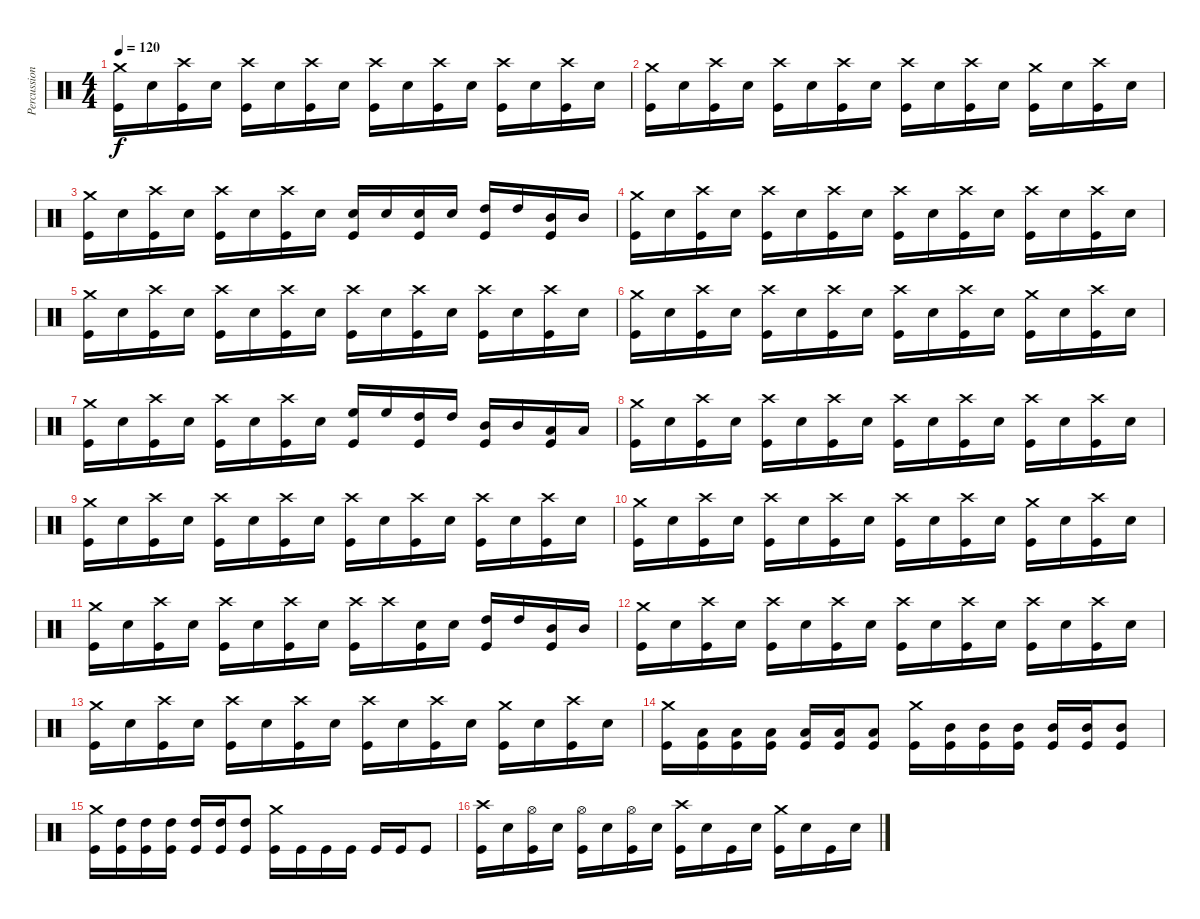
\track ("Percussioni" "Percussion") {instrument percussion}
\staff {score}
\articulation defaults
\ts (4 4)
\tempo 120
\clef neutral
\ks c
("Crash medium (hit)" "Kick (hit)").16{dy f} "Electric Snare (hit)".16 ("Crash high (hit)" "Kick (hit)").16 "Electric Snare (hit)".16 ("Crash high (hit)" "Kick (hit)").16 "Electric Snare (hit)".16 ("Crash high (hit)" "Kick (hit)").16 "Electric Snare (hit)".16 ("Crash high (hit)" "Kick (hit)").16 "Electric Snare (hit)".16 ("Crash high (hit)" "Kick (hit)").16 "Electric Snare (hit)".16 ("Crash high (hit)" "Kick (hit)").16 "Electric Snare (hit)".16 ("Crash high (hit)" "Kick (hit)").16 "Electric Snare (hit)".16 |
("Crash medium (hit)" "Kick (hit)").16 "Electric Snare (hit)".16 ("Crash high (hit)" "Kick (hit)").16 "Electric Snare (hit)".16 ("Crash high (hit)" "Kick (hit)").16 "Electric Snare (hit)".16 ("Crash high (hit)" "Kick (hit)").16 "Electric Snare (hit)".16 ("Crash high (hit)" "Kick (hit)").16 "Electric Snare (hit)".16 ("Crash high (hit)" "Kick (hit)").16 "Electric Snare (hit)".16 ("Crash medium (hit)" "Kick (hit)").16 "Electric Snare (hit)".16 ("Crash high (hit)" "Kick (hit)").16 "Electric Snare (hit)".16 |
("Crash medium (hit)" "Kick (hit)").16 "Electric Snare (hit)".16 ("Crash high (hit)" "Kick (hit)").16 "Electric Snare (hit)".16 ("Crash high (hit)" "Kick (hit)").16 "Electric Snare (hit)".16 ("Crash high (hit)" "Kick (hit)").16 "Electric Snare (hit)".16 ("Electric Snare (hit)" "Kick (hit)").16 "Electric Snare (hit)".16 ("Electric Snare (hit)" "Kick (hit)").16 "Electric Snare (hit)".16 ("High Tom (hit)" "Kick (hit)").16 "High Tom (hit)".16 ("Mid Tom (hit)" "Kick (hit)").16 "Mid Tom (hit)".16 |
("Crash medium (hit)" "Kick (hit)").16 "Electric Snare (hit)".16 ("Crash high (hit)" "Kick (hit)").16 "Electric Snare (hit)".16 ("Crash high (hit)" "Kick (hit)").16 "Electric Snare (hit)".16 ("Crash high (hit)" "Kick (hit)").16 "Electric Snare (hit)".16 ("Crash high (hit)" "Kick (hit)").16 "Electric Snare (hit)".16 ("Crash high (hit)" "Kick (hit)").16 "Electric Snare (hit)".16 ("Crash high (hit)" "Kick (hit)").16 "Electric Snare (hit)".16 ("Crash high (hit)" "Kick (hit)").16 "Electric Snare (hit)".16 |
("Crash medium (hit)" "Kick (hit)").16 "Electric Snare (hit)".16 ("Crash high (hit)" "Kick (hit)").16 "Electric Snare (hit)".16 ("Crash high (hit)" "Kick (hit)").16 "Electric Snare (hit)".16 ("Crash high (hit)" "Kick (hit)").16 "Electric Snare (hit)".16 ("Crash high (hit)" "Kick (hit)").16 "Electric Snare (hit)".16 ("Crash high (hit)" "Kick (hit)").16 "Electric Snare (hit)".16 ("Crash high (hit)" "Kick (hit)").16 "Electric Snare (hit)".16 ("Crash high (hit)" "Kick (hit)").16 "Electric Snare (hit)".16 |
("Crash medium (hit)" "Kick (hit)").16 "Electric Snare (hit)".16 ("Crash high (hit)" "Kick (hit)").16 "Electric Snare (hit)".16 ("Crash high (hit)" "Kick (hit)").16 "Electric Snare (hit)".16 ("Crash high (hit)" "Kick (hit)").16 "Electric Snare (hit)".16 ("Crash high (hit)" "Kick (hit)").16 "Electric Snare (hit)".16 ("Crash high (hit)" "Kick (hit)").16 "Electric Snare (hit)".16 ("Crash medium (hit)" "Kick (hit)").16 "Electric Snare (hit)".16 ("Crash high (hit)" "Kick (hit)").16 "Electric Snare (hit)".16 |
("Crash medium (hit)" "Kick (hit)").16 "Electric Snare (hit)".16 ("Crash high (hit)" "Kick (hit)").16 "Electric Snare (hit)".16 ("Crash high (hit)" "Kick (hit)").16 "Electric Snare (hit)".16 ("Crash high (hit)" "Kick (hit)").16 "Electric Snare (hit)".16 ("High Floor Tom (hit)" "Kick (hit)").16 "High Floor Tom (hit)".16 ("High Tom (hit)" "Kick (hit)").16 "High Tom (hit)".16 ("Mid Tom (hit)" "Kick (hit)").16 "Mid Tom (hit)".16 ("Low Tom (hit)" "Kick (hit)").16 "Low Tom (hit)".16 |
("Crash medium (hit)" "Kick (hit)").16 "Electric Snare (hit)".16 ("Crash high (hit)" "Kick (hit)").16 "Electric Snare (hit)".16 ("Crash high (hit)" "Kick (hit)").16 "Electric Snare (hit)".16 ("Crash high (hit)" "Kick (hit)").16 "Electric Snare (hit)".16 ("Crash high (hit)" "Kick (hit)").16 "Electric Snare (hit)".16 ("Crash high (hit)" "Kick (hit)").16 "Electric Snare (hit)".16 ("Crash high (hit)" "Kick (hit)").16 "Electric Snare (hit)".16 ("Crash high (hit)" "Kick (hit)").16 "Electric Snare (hit)".16 |
("Crash medium (hit)" "Kick (hit)").16 "Electric Snare (hit)".16 ("Crash high (hit)" "Kick (hit)").16 "Electric Snare (hit)".16 ("Crash high (hit)" "Kick (hit)").16 "Electric Snare (hit)".16 ("Crash high (hit)" "Kick (hit)").16 "Electric Snare (hit)".16 ("Crash high (hit)" "Kick (hit)").16 "Electric Snare (hit)".16 ("Crash high (hit)" "Kick (hit)").16 "Electric Snare (hit)".16 ("Crash high (hit)" "Kick (hit)").16 "Electric Snare (hit)".16 ("Crash high (hit)" "Kick (hit)").16 "Electric Snare (hit)".16 |
("Crash medium (hit)" "Kick (hit)").16 "Electric Snare (hit)".16 ("Crash high (hit)" "Kick (hit)").16 "Electric Snare (hit)".16 ("Crash high (hit)" "Kick (hit)").16 "Electric Snare (hit)".16 ("Crash high (hit)" "Kick (hit)").16 "Electric Snare (hit)".16 ("Crash high (hit)" "Kick (hit)").16 "Electric Snare (hit)".16 ("Crash high (hit)" "Kick (hit)").16 "Electric Snare (hit)".16 ("Crash medium (hit)" "Kick (hit)").16 "Electric Snare (hit)".16 ("Crash high (hit)" "Kick (hit)").16 "Electric Snare (hit)".16 |
("Crash medium (hit)" "Kick (hit)").16 "Electric Snare (hit)".16 ("Crash high (hit)" "Kick (hit)").16 "Electric Snare (hit)".16 ("Crash high (hit)" "Kick (hit)").16 "Electric Snare (hit)".16 ("Crash high (hit)" "Kick (hit)").16 "Electric Snare (hit)".16 ("Crash high (hit)" "Kick (hit)").16 "Crash high (hit)".16 ("Electric Snare (hit)" "Kick (hit)").16 "Electric Snare (hit)".16 ("High Tom (hit)" "Kick (hit)").16 "High Tom (hit)".16 ("Mid Tom (hit)" "Kick (hit)").16 "Mid Tom (hit)".16 |
("Crash medium (hit)" "Kick (hit)").16 "Electric Snare (hit)".16 ("Crash high (hit)" "Kick (hit)").16 "Electric Snare (hit)".16 ("Crash high (hit)" "Kick (hit)").16 "Electric Snare (hit)".16 ("Crash high (hit)" "Kick (hit)").16 "Electric Snare (hit)".16 ("Crash high (hit)" "Kick (hit)").16 "Electric Snare (hit)".16 ("Crash high (hit)" "Kick (hit)").16 "Electric Snare (hit)".16 ("Crash high (hit)" "Kick (hit)").16 "Electric Snare (hit)".16 ("Crash high (hit)" "Kick (hit)").16 "Electric Snare (hit)".16 |
("Crash medium (hit)" "Kick (hit)").16 "Electric Snare (hit)".16 ("Crash high (hit)" "Kick (hit)").16 "Electric Snare (hit)".16 ("Crash high (hit)" "Kick (hit)").16 "Electric Snare (hit)".16 ("Crash high (hit)" "Kick (hit)").16 "Electric Snare (hit)".16 ("Crash high (hit)" "Kick (hit)").16 "Electric Snare (hit)".16 ("Crash high (hit)" "Kick (hit)").16 "Electric Snare (hit)".16 ("Crash medium (hit)" "Kick (hit)").16 "Electric Snare (hit)".16 ("Crash high (hit)" "Kick (hit)").16 "Electric Snare (hit)".16 |
("Crash medium (hit)" "Kick (hit)").16 ("Low Tom (hit)" "Kick (hit)").16 ("Low Tom (hit)" "Kick (hit)").16 ("Low Tom (hit)" "Kick (hit)").16 ("Low Tom (hit)" "Kick (hit)").16 ("Low Tom (hit)" "Kick (hit)").16 ("Low Tom (hit)" "Kick (hit)").8 ("Crash medium (hit)" "Kick (hit)").16 ("Mid Tom (hit)" "Kick (hit)").16 ("Mid Tom (hit)" "Kick (hit)").16 ("Mid Tom (hit)" "Kick (hit)").16 ("Mid Tom (hit)" "Kick (hit)").16 ("Mid Tom (hit)" "Kick (hit)").16 ("Mid Tom (hit)" "Kick (hit)").8 |
("Crash medium (hit)" "Kick (hit)").16 ("High Tom (hit)" "Kick (hit)").16 ("High Tom (hit)" "Kick (hit)").16 ("High Tom (hit)" "Kick (hit)").16 ("High Tom (hit)" "Kick (hit)").16 ("High Tom (hit)" "Kick (hit)").16 ("High Tom (hit)" "Kick (hit)").8 ("Crash medium (hit)" "Kick (hit)").16 "Kick (hit)".16 "Kick (hit)".16 "Kick (hit)".16 "Kick (hit)".16 "Kick (hit)".16 "Kick (hit)".8 |
("Crash high (hit)" "Kick (hit)").16 "Electric Snare (hit)".16 ("Hi-Hat (open)" "Kick (hit)").16 "Electric Snare (hit)".16 ("Hi-Hat (open)" "Kick (hit)").16 "Electric Snare (hit)".16 ("Hi-Hat (open)" "Kick (hit)").16 "Electric Snare (hit)".16 ("Crash high (hit)" "Kick (hit)").16 "Electric Snare (hit)".16 "Kick (hit)".16 "Electric Snare (hit)".16 ("Crash medium (hit)" "Kick (hit)").16 "Electric Snare (hit)".16 "Kick (hit)".16 "Electric Snare (hit)".16
